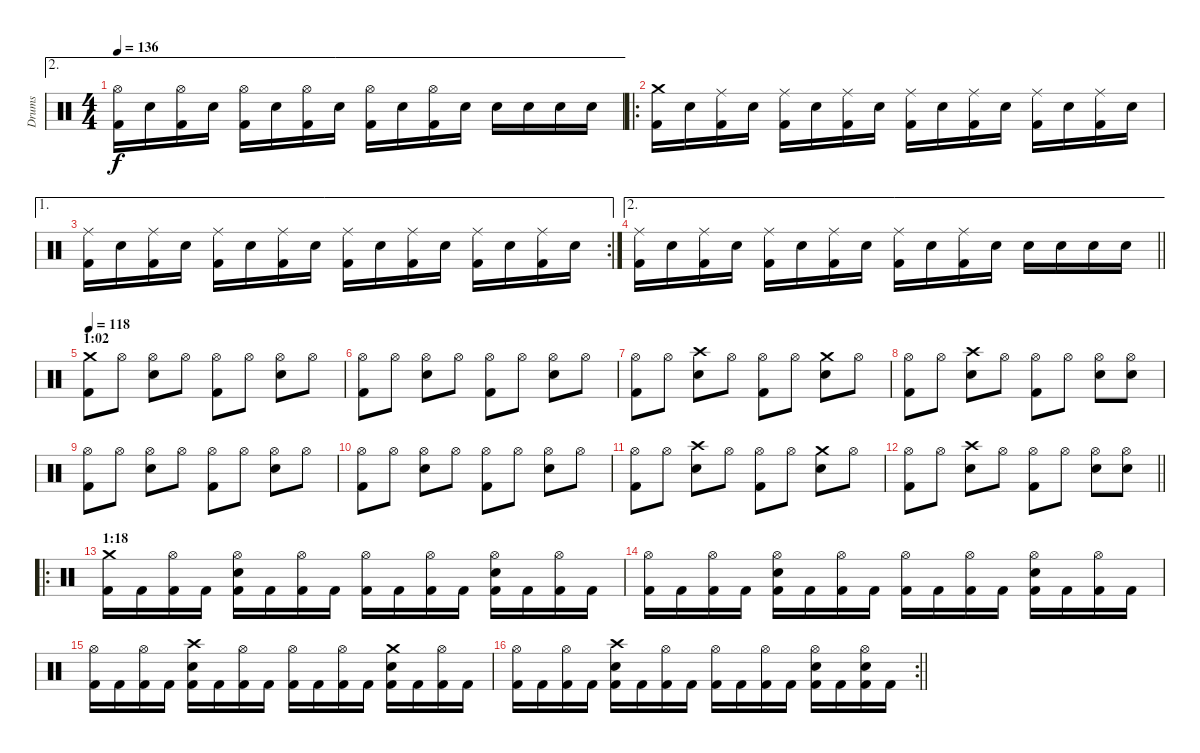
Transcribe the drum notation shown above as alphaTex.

\track ("Drums" "Drums") {instrument percussion}
\staff {score}
\articulation defaults
\ae 2
\ts (4 4)
\tempo 136
\clef neutral
\ks c
("Hi-Hat (open)" "Kick (hit) 2").16{dy f} "Electric Snare (hit)".16 ("Hi-Hat (open)" "Kick (hit) 2").16 "Electric Snare (hit)".16 ("Hi-Hat (open)" "Kick (hit) 2").16 "Electric Snare (hit)".16 ("Hi-Hat (open)" "Kick (hit) 2").16 "Electric Snare (hit)".16 ("Hi-Hat (open)" "Kick (hit) 2").16 "Electric Snare (hit)".16 ("Hi-Hat (open)" "Kick (hit) 2").16 "Electric Snare (hit)".16 "Electric Snare (hit)".16 "Electric Snare (hit)".16 "Electric Snare (hit)".16 "Electric Snare (hit)".16 |
\ro
("Crash medium (hit)" "Kick (hit) 2").16 "Electric Snare (hit)".16 ("Ride (middle)" "Kick (hit) 2").16 "Electric Snare (hit)".16 ("Ride (middle)" "Kick (hit) 2").16 "Electric Snare (hit)".16 ("Ride (middle)" "Kick (hit) 2").16 "Electric Snare (hit)".16 ("Ride (middle)" "Kick (hit) 2").16 "Electric Snare (hit)".16 ("Ride (middle)" "Kick (hit) 2").16 "Electric Snare (hit)".16 ("Ride (middle)" "Kick (hit) 2").16 "Electric Snare (hit)".16 ("Ride (middle)" "Kick (hit) 2").16 "Electric Snare (hit)".16 |
\ae 1
\rc 2
("Ride (middle)" "Kick (hit) 2").16 "Electric Snare (hit)".16 ("Ride (middle)" "Kick (hit) 2").16 "Electric Snare (hit)".16 ("Ride (middle)" "Kick (hit) 2").16 "Electric Snare (hit)".16 ("Ride (middle)" "Kick (hit) 2").16 "Electric Snare (hit)".16 ("Ride (middle)" "Kick (hit) 2").16 "Electric Snare (hit)".16 ("Ride (middle)" "Kick (hit) 2").16 "Electric Snare (hit)".16 ("Ride (middle)" "Kick (hit) 2").16 "Electric Snare (hit)".16 ("Ride (middle)" "Kick (hit) 2").16 "Electric Snare (hit)".16 |
\ae 2
\barLineRight lightlight
("Ride (middle)" "Kick (hit) 2").16 "Electric Snare (hit)".16 ("Ride (middle)" "Kick (hit) 2").16 "Electric Snare (hit)".16 ("Ride (middle)" "Kick (hit) 2").16 "Electric Snare (hit)".16 ("Ride (middle)" "Kick (hit) 2").16 "Electric Snare (hit)".16 ("Ride (middle)" "Kick (hit) 2").16 "Electric Snare (hit)".16 ("Ride (middle)" "Kick (hit) 2").16 "Electric Snare (hit)".16 "Electric Snare (hit)".16 "Electric Snare (hit)".16 "Electric Snare (hit)".16 "Electric Snare (hit)".16 |
\section ("" "1:02")
\tempo 118
("Crash medium (hit)" "Kick (hit) 2").8 "Hi-Hat (open)".8 ("Hi-Hat (open)" "Electric Snare (hit)").8 "Hi-Hat (open)".8 ("Hi-Hat (open)" "Kick (hit) 2").8 "Hi-Hat (open)".8 ("Hi-Hat (open)" "Electric Snare (hit)").8 "Hi-Hat (open)".8 |
("Hi-Hat (open)" "Kick (hit) 2").8 "Hi-Hat (open)".8 ("Hi-Hat (open)" "Electric Snare (hit)").8 "Hi-Hat (open)".8 ("Hi-Hat (open)" "Kick (hit) 2").8 "Hi-Hat (open)".8 ("Hi-Hat (open)" "Electric Snare (hit)").8 "Hi-Hat (open)".8 |
("Hi-Hat (open)" "Kick (hit) 2").8 "Hi-Hat (open)".8 ("Crash high (hit)" "Electric Snare (hit)").8 "Hi-Hat (open)".8 ("Hi-Hat (open)" "Kick (hit) 2").8 "Hi-Hat (open)".8 ("Crash medium (hit)" "Electric Snare (hit)").8 "Hi-Hat (open)".8 |
("Hi-Hat (open)" "Kick (hit) 2").8 "Hi-Hat (open)".8 ("Crash high (hit)" "Electric Snare (hit)").8 "Hi-Hat (open)".8 ("Hi-Hat (open)" "Kick (hit) 2").8 "Hi-Hat (open)".8 ("Hi-Hat (open)" "Electric Snare (hit)").8 ("Hi-Hat (open)" "Electric Snare (hit)").8 |
("Hi-Hat (open)" "Kick (hit) 2").8 "Hi-Hat (open)".8 ("Hi-Hat (open)" "Electric Snare (hit)").8 "Hi-Hat (open)".8 ("Hi-Hat (open)" "Kick (hit) 2").8 "Hi-Hat (open)".8 ("Hi-Hat (open)" "Electric Snare (hit)").8 "Hi-Hat (open)".8 |
("Hi-Hat (open)" "Kick (hit) 2").8 "Hi-Hat (open)".8 ("Hi-Hat (open)" "Electric Snare (hit)").8 "Hi-Hat (open)".8 ("Hi-Hat (open)" "Kick (hit) 2").8 "Hi-Hat (open)".8 ("Hi-Hat (open)" "Electric Snare (hit)").8 "Hi-Hat (open)".8 |
("Hi-Hat (open)" "Kick (hit) 2").8 "Hi-Hat (open)".8 ("Crash high (hit)" "Electric Snare (hit)").8 "Hi-Hat (open)".8 ("Hi-Hat (open)" "Kick (hit) 2").8 "Hi-Hat (open)".8 ("Crash medium (hit)" "Electric Snare (hit)").8 "Hi-Hat (open)".8 |
\barLineRight lightlight
("Hi-Hat (open)" "Kick (hit) 2").8 "Hi-Hat (open)".8 ("Crash high (hit)" "Electric Snare (hit)").8 "Hi-Hat (open)".8 ("Hi-Hat (open)" "Kick (hit) 2").8 "Hi-Hat (open)".8 ("Hi-Hat (open)" "Electric Snare (hit)").8 ("Hi-Hat (open)" "Electric Snare (hit)").8 |
\ro
\section ("" "1:18")
("Crash medium (hit)" "Kick (hit) 2").16 "Kick (hit) 2".16 ("Hi-Hat (open)" "Kick (hit) 2").16 "Kick (hit) 2".16 ("Hi-Hat (open)" "Electric Snare (hit)" "Kick (hit) 2").16 "Kick (hit) 2".16 ("Hi-Hat (open)" "Kick (hit) 2").16 "Kick (hit) 2".16 ("Hi-Hat (open)" "Kick (hit) 2").16 "Kick (hit) 2".16 ("Hi-Hat (open)" "Kick (hit) 2").16 "Kick (hit) 2".16 ("Hi-Hat (open)" "Electric Snare (hit)" "Kick (hit) 2").16 "Kick (hit) 2".16 ("Hi-Hat (open)" "Kick (hit) 2").16 "Kick (hit) 2".16 |
("Hi-Hat (open)" "Kick (hit) 2").16 "Kick (hit) 2".16 ("Hi-Hat (open)" "Kick (hit) 2").16 "Kick (hit) 2".16 ("Hi-Hat (open)" "Electric Snare (hit)" "Kick (hit) 2").16 "Kick (hit) 2".16 ("Hi-Hat (open)" "Kick (hit) 2").16 "Kick (hit) 2".16 ("Hi-Hat (open)" "Kick (hit) 2").16 "Kick (hit) 2".16 ("Hi-Hat (open)" "Kick (hit) 2").16 "Kick (hit) 2".16 ("Hi-Hat (open)" "Electric Snare (hit)" "Kick (hit) 2").16 "Kick (hit) 2".16 ("Hi-Hat (open)" "Kick (hit) 2").16 "Kick (hit) 2".16 |
("Hi-Hat (open)" "Kick (hit) 2").16 "Kick (hit) 2".16 ("Hi-Hat (open)" "Kick (hit) 2").16 "Kick (hit) 2".16 ("Crash high (hit)" "Electric Snare (hit)" "Kick (hit) 2").16 "Kick (hit) 2".16 ("Hi-Hat (open)" "Kick (hit) 2").16 "Kick (hit) 2".16 ("Hi-Hat (open)" "Kick (hit) 2").16 "Kick (hit) 2".16 ("Hi-Hat (open)" "Kick (hit) 2").16 "Kick (hit) 2".16 ("Crash medium (hit)" "Electric Snare (hit)" "Kick (hit) 2").16 "Kick (hit) 2".16 ("Hi-Hat (open)" "Kick (hit) 2").16 "Kick (hit) 2".16 |
\rc 2
\barLineRight lightlight
("Hi-Hat (open)" "Kick (hit) 2").16 "Kick (hit) 2".16 ("Hi-Hat (open)" "Kick (hit) 2").16 "Kick (hit) 2".16 ("Crash high (hit)" "Electric Snare (hit)" "Kick (hit) 2").16 "Kick (hit) 2".16 ("Hi-Hat (open)" "Kick (hit) 2").16 "Kick (hit) 2".16 ("Hi-Hat (open)" "Kick (hit) 2").16 "Kick (hit) 2".16 ("Hi-Hat (open)" "Kick (hit) 2").16 "Kick (hit) 2".16 ("Hi-Hat (open)" "Electric Snare (hit)" "Kick (hit) 2").16 "Kick (hit) 2".16 ("Hi-Hat (open)" "Electric Snare (hit)" "Kick (hit) 2").16 "Kick (hit) 2".16
